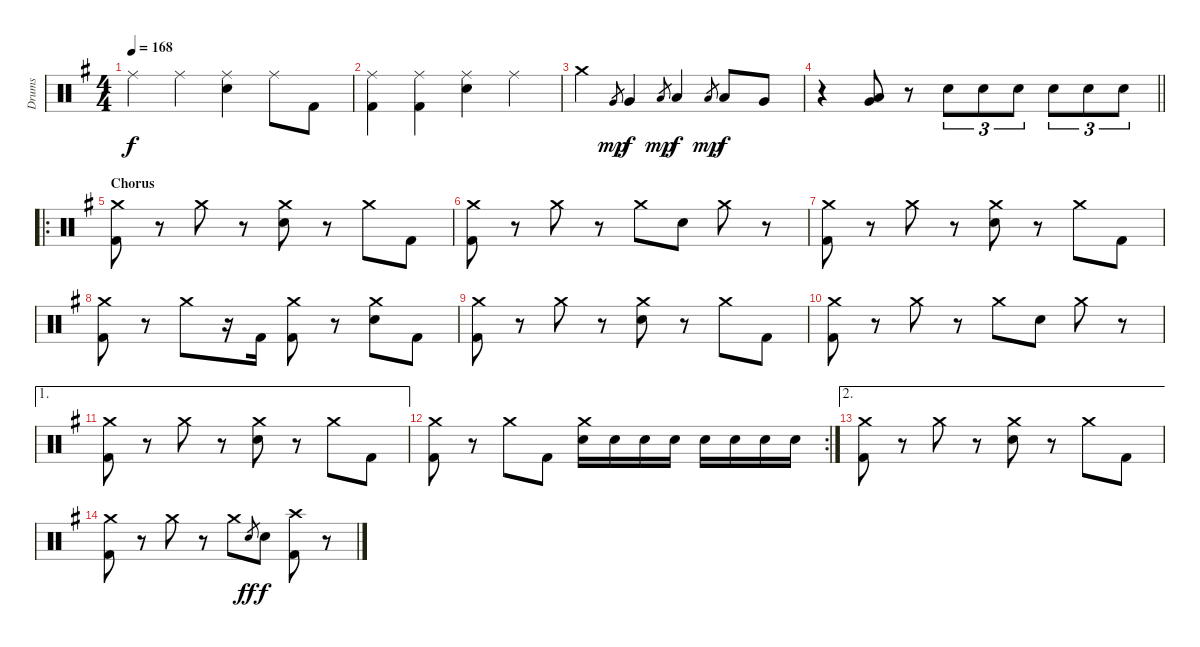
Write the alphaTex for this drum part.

\track ("Drums" "Drums") {instrument percussion}
\staff {score}
\articulation defaults
\ts (4 4)
\tempo 168
\clef neutral
\ks g "Ride (middle)".4{dy f} "Ride (middle)".4
("Ride (middle)" "Electric Snare (hit)").4 "Ride (middle)".8 "Kick (hit) 2".8 |
("Ride (middle)" "Kick (hit) 2").4 ("Ride (middle)" "Kick (hit) 2").4 ("Ride (middle)" "Electric Snare (hit)").4 "Ride (middle)".4 |
"Crash medium (hit)".4 "Very Low Tom (hit)".8{gr dy mp} "Very Low Tom (hit)".4{dy f} "Low Floor Tom (hit)".8{gr dy mp} "Low Floor Tom (hit)".4{dy f} "Low Floor Tom (hit)".8{gr dy mp} "Low Floor Tom (hit)".8{dy f} "Very Low Tom (hit)".8 |
\barLineRight lightlight
r.4 ("Very Low Tom (hit)" "Low Floor Tom (hit)").8 r.8 "Electric Snare (hit)".8{tu (3 2)} "Electric Snare (hit)".8{tu (3 2)} "Electric Snare (hit)".8{tu (3 2)} "Electric Snare (hit)".8{tu (3 2)} "Electric Snare (hit)".8{tu (3 2)} "Electric Snare (hit)".8{tu (3 2)} |
\ro
\section ("" "Chorus")
("Crash medium (hit)" "Kick (hit) 2").8 r.8 "Crash medium (hit)".8 r.8 ("Crash medium (hit)" "Electric Snare (hit)").8 r.8 "Crash medium (hit)".8 "Kick (hit) 2".8 |
("Crash medium (hit)" "Kick (hit) 2").8 r.8 "Crash medium (hit)".8 r.8 "Crash medium (hit)".8 "Electric Snare (hit)".8 "Crash medium (hit)".8 r.8 |
("Crash medium (hit)" "Kick (hit) 2").8 r.8 "Crash medium (hit)".8 r.8 ("Crash medium (hit)" "Electric Snare (hit)").8 r.8 "Crash medium (hit)".8 "Kick (hit) 2".8 |
("Crash medium (hit)" "Kick (hit) 2").8 r.8 "Crash medium (hit)".8 r.16 "Kick (hit) 2".16 ("Crash medium (hit)" "Kick (hit) 2").8 r.8 ("Crash medium (hit)" "Electric Snare (hit)").8 "Kick (hit) 2".8 |
("Crash medium (hit)" "Kick (hit) 2").8 r.8 "Crash medium (hit)".8 r.8 ("Crash medium (hit)" "Electric Snare (hit)").8 r.8 "Crash medium (hit)".8 "Kick (hit) 2".8 |
("Crash medium (hit)" "Kick (hit) 2").8 r.8 "Crash medium (hit)".8 r.8 "Crash medium (hit)".8 "Electric Snare (hit)".8 "Crash medium (hit)".8 r.8 |
\ae 1
("Crash medium (hit)" "Kick (hit) 2").8 r.8 "Crash medium (hit)".8 r.8 ("Crash medium (hit)" "Electric Snare (hit)").8 r.8 "Crash medium (hit)".8 "Kick (hit) 2".8 |
\rc 2
("Crash medium (hit)" "Kick (hit) 2").8 r.8 "Crash medium (hit)".8 "Kick (hit) 2".8 ("Crash medium (hit)" "Electric Snare (hit)").16 "Electric Snare (hit)".16 "Electric Snare (hit)".16 "Electric Snare (hit)".16 "Electric Snare (hit)".16 "Electric Snare (hit)".16 "Electric Snare (hit)".16 "Electric Snare (hit)".16 |
\ae 2
("Crash medium (hit)" "Kick (hit) 2").8 r.8 "Crash medium (hit)".8 r.8 ("Crash medium (hit)" "Electric Snare (hit)").8 r.8 "Crash medium (hit)".8 "Kick (hit) 2".8 |
("Crash medium (hit)" "Kick (hit) 2").8 r.8 "Crash medium (hit)".8 r.8 "Crash medium (hit)".8 "Electric Snare (hit)".8{gr dy ff} "Electric Snare (hit)".8{dy f} ("Crash high (hit)" "Kick (hit) 2").8 r.8{volume 0}
